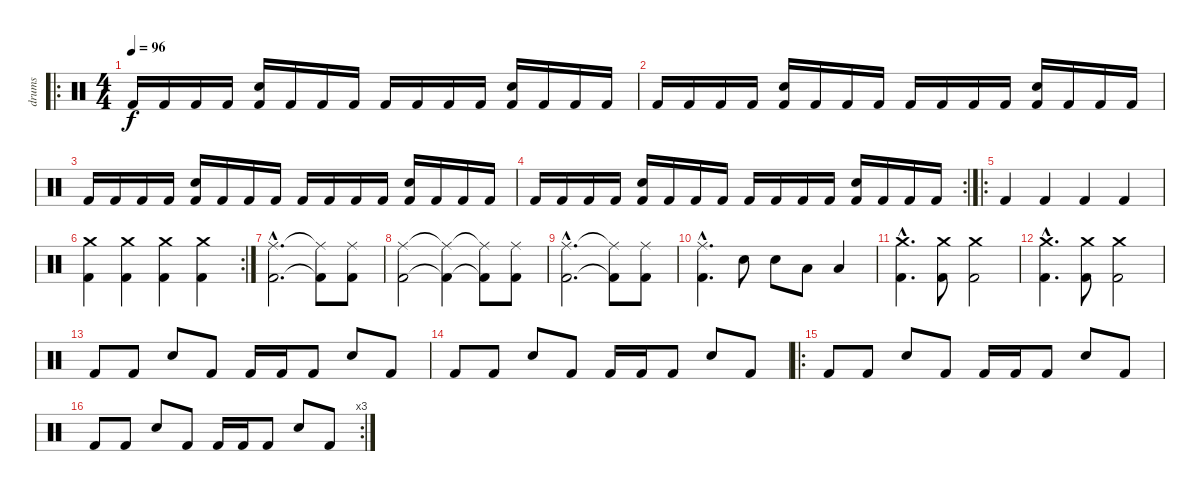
\track ("drums" "drums") {instrument percussion}
\staff {score}
\articulation defaults
\ro
\ts (4 4)
\tempo 96
\clef neutral
\ks c "Kick (hit) 2".16{dy f} "Kick (hit) 2".16 "Kick (hit) 2".16 "Kick (hit) 2".16
("Electric Snare (hit)" "Kick (hit) 2").16 "Kick (hit) 2".16 "Kick (hit) 2".16 "Kick (hit) 2".16 "Kick (hit) 2".16 "Kick (hit) 2".16 "Kick (hit) 2".16 "Kick (hit) 2".16 ("Electric Snare (hit)" "Kick (hit) 2").16 "Kick (hit) 2".16 "Kick (hit) 2".16 "Kick (hit) 2".16 |
"Kick (hit) 2".16 "Kick (hit) 2".16 "Kick (hit) 2".16 "Kick (hit) 2".16 ("Electric Snare (hit)" "Kick (hit) 2").16 "Kick (hit) 2".16 "Kick (hit) 2".16 "Kick (hit) 2".16 "Kick (hit) 2".16 "Kick (hit) 2".16 "Kick (hit) 2".16 "Kick (hit) 2".16 ("Electric Snare (hit)" "Kick (hit) 2").16 "Kick (hit) 2".16 "Kick (hit) 2".16 "Kick (hit) 2".16 |
"Kick (hit) 2".16 "Kick (hit) 2".16 "Kick (hit) 2".16 "Kick (hit) 2".16 ("Electric Snare (hit)" "Kick (hit) 2").16 "Kick (hit) 2".16 "Kick (hit) 2".16 "Kick (hit) 2".16 "Kick (hit) 2".16 "Kick (hit) 2".16 "Kick (hit) 2".16 "Kick (hit) 2".16 ("Electric Snare (hit)" "Kick (hit) 2").16 "Kick (hit) 2".16 "Kick (hit) 2".16 "Kick (hit) 2".16 |
\rc 2 "Kick (hit) 2".16 "Kick (hit) 2".16 "Kick (hit) 2".16 "Kick (hit) 2".16
("Electric Snare (hit)" "Kick (hit) 2").16 "Kick (hit) 2".16 "Kick (hit) 2".16 "Kick (hit) 2".16 "Kick (hit) 2".16 "Kick (hit) 2".16 "Kick (hit) 2".16 "Kick (hit) 2".16 ("Electric Snare (hit)" "Kick (hit) 2").16 "Kick (hit) 2".16 "Kick (hit) 2".16 "Kick (hit) 2".16 |
\ro "Kick (hit) 2".4 "Kick (hit) 2".4 "Kick (hit) 2".4 "Kick (hit) 2".4
|
\rc 2
("Crash medium (hit)" "Kick (hit) 2").4 ("Crash medium (hit)" "Kick (hit) 2").4 ("Crash medium (hit)" "Kick (hit) 2").4 ("Crash medium (hit)" "Kick (hit) 2").4 |
("Ride (middle)"{hac} "Kick (hit) 2"{hac}).2{d} ("Ride (middle)"{t} "Kick (hit) 2"{t}).8 ("Ride (middle)" "Kick (hit) 2").8 |
("Ride (middle)" "Kick (hit) 2").2 ("Ride (middle)"{t} "Kick (hit) 2"{t}).4 ("Ride (middle)"{t} "Kick (hit) 2"{t}).8 ("Ride (middle)" "Kick (hit) 2").8 |
("Ride (middle)"{hac} "Kick (hit) 2"{hac}).2{d} ("Ride (middle)"{t} "Kick (hit) 2"{t}).8 ("Ride (middle)" "Kick (hit) 2").8 |
("Ride (middle)"{hac} "Kick (hit) 2"{hac}).4{d} "Snare (hit) 2".8 "Snare (hit) 2".8 "Low Floor Tom (hit)".8 "Low Floor Tom (hit)".4 |
("Crash medium (hit)"{hac} "Kick (hit) 2"{hac}).4{d} ("Crash medium (hit)" "Kick (hit) 2").8 ("Crash medium (hit)" "Kick (hit) 2").2 |
("Crash medium (hit)"{hac} "Kick (hit) 2"{hac}).4{d} ("Crash medium (hit)" "Kick (hit) 2").8 ("Crash medium (hit)" "Kick (hit) 2").2 |
"Kick (hit) 2".8 "Kick (hit) 2".8 "Electric Snare (hit)".8 "Kick (hit) 2".8 "Kick (hit) 2".16 "Kick (hit) 2".16 "Kick (hit) 2".8 "Electric Snare (hit)".8 "Kick (hit) 2".8 |
"Kick (hit) 2".8 "Kick (hit) 2".8 "Electric Snare (hit)".8 "Kick (hit) 2".8 "Kick (hit) 2".16 "Kick (hit) 2".16 "Kick (hit) 2".8 "Electric Snare (hit)".8 "Kick (hit) 2".8 |
\ro "Kick (hit) 2".8 "Kick (hit) 2".8 "Electric Snare (hit)".8 "Kick (hit) 2".8 "Kick (hit) 2".16 "Kick (hit) 2".16 "Kick (hit) 2".8 "Electric Snare (hit)".8 "Kick (hit) 2".8
|
\rc 3 "Kick (hit) 2".8 "Kick (hit) 2".8 "Electric Snare (hit)".8 "Kick (hit) 2".8 "Kick (hit) 2".16 "Kick (hit) 2".16 "Kick (hit) 2".8 "Electric Snare (hit)".8 "Kick (hit) 2".8
